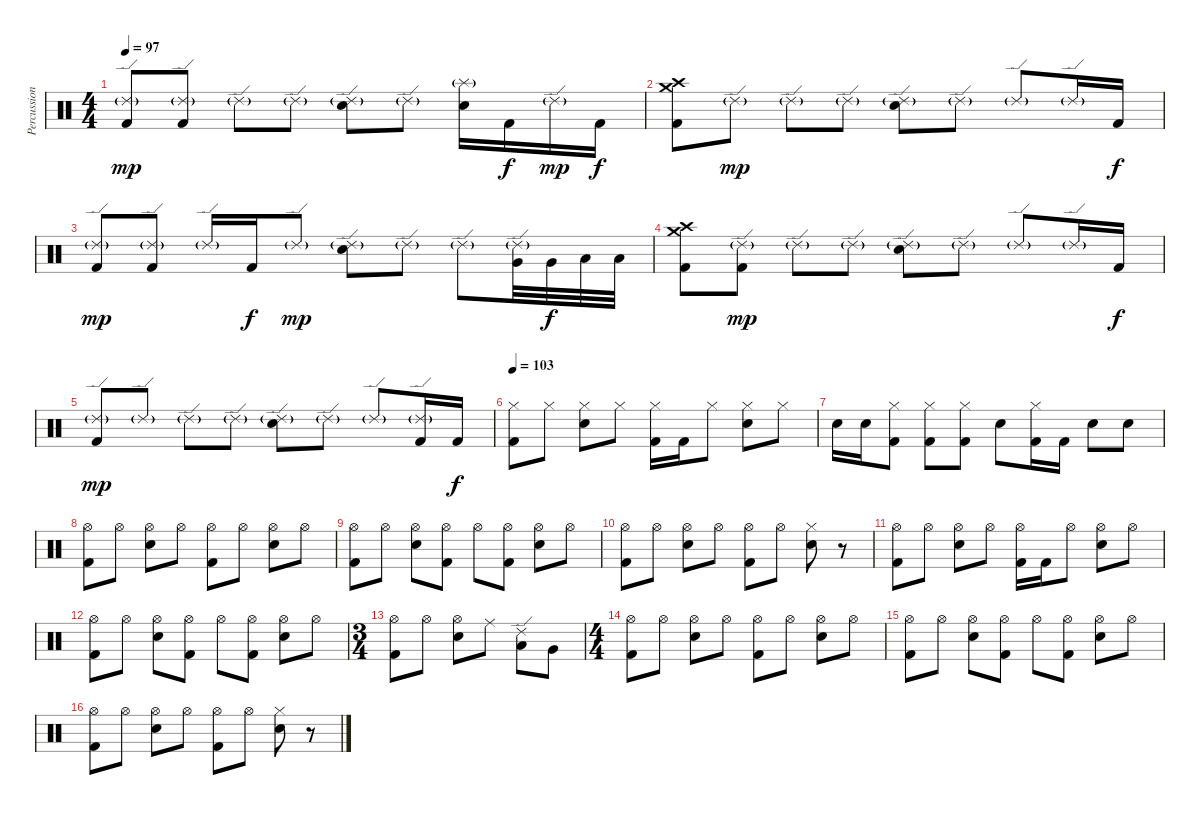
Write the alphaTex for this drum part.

\track ("Percussion" "Percussion") {instrument percussion}
\staff {score}
\articulation defaults
\ts (4 4)
\tempo 97
\clef neutral
\ks c
("Ride (edge) 2"{g} "Kick (hit) 2").8{dy mp} ("Ride (edge) 2"{g} "Kick (hit) 2").8 "Ride (edge) 2"{g}.8 "Ride (edge) 2"{g}.8 ("Ride (edge) 2"{g} "Electric Snare (hit)").8 "Ride (edge) 2"{g}.8 ("Splash (hit)"{g} "Electric Snare (hit)").16 "Kick (hit) 2".16{dy f} "Ride (edge) 2"{g}.16{dy mp} "Kick (hit) 2".16{dy f} |
("Crash medium (hit)" "Crash high (hit)" "Kick (hit) 2").8 "Ride (edge) 2"{g}.8{dy mp} "Ride (edge) 2"{g}.8 "Ride (edge) 2"{g}.8 ("Ride (edge) 2"{g} "Electric Snare (hit)").8 "Ride (edge) 2"{g}.8 "Ride (edge) 2"{g}.8 "Ride (edge) 2"{g}.16 "Kick (hit) 2".16{dy f} |
("Ride (edge) 2"{g} "Kick (hit) 2").8{dy mp} ("Ride (edge) 2"{g} "Kick (hit) 2").8 "Ride (edge) 2"{g}.16 "Kick (hit) 2".16{dy f} "Ride (edge) 2"{g}.8{dy mp} ("Ride (edge) 2"{g} "Electric Snare (hit)").8 "Ride (edge) 2"{g}.8 "Ride (edge) 2"{g}.8 ("Ride (edge) 2"{g} "Very Low Tom (hit)").32 "Very Low Tom (hit)".32{dy f} "Low Floor Tom (hit)".32 "Low Floor Tom (hit)".32 |
("Crash medium (hit)" "Crash high (hit)" "Kick (hit) 2").8 ("Ride (edge) 2"{g} "Kick (hit) 2").8{dy mp} "Ride (edge) 2"{g}.8 "Ride (edge) 2"{g}.8 ("Ride (edge) 2"{g} "Electric Snare (hit)").8 "Ride (edge) 2"{g}.8 "Ride (edge) 2"{g}.8 "Ride (edge) 2"{g}.16 "Kick (hit) 2".16{dy f} |
("Ride (edge) 2"{g} "Kick (hit) 2").8{dy mp} "Ride (edge) 2"{g}.8 "Ride (edge) 2"{g}.8 "Ride (edge) 2"{g}.8 ("Ride (edge) 2"{g} "Electric Snare (hit)").8 "Ride (edge) 2"{g}.8 "Ride (edge) 2"{g}.8 ("Ride (edge) 2"{g} "Kick (hit) 2").16 "Kick (hit) 2".16{dy f} |
\tempo 103
("Hi-Hat (closed)" "Kick (hit) 2").8 "Hi-Hat (closed)".8 ("Hi-Hat (closed)" "Electric Snare (hit)").8 "Hi-Hat (closed)".8 ("Hi-Hat (closed)" "Kick (hit) 2").16 "Kick (hit) 2".16 "Hi-Hat (closed)".8 ("Hi-Hat (closed)" "Electric Snare (hit)").8 "Hi-Hat (closed)".8 |
"Electric Snare (hit)".16 "Electric Snare (hit)".16 ("Hi-Hat (closed)" "Kick (hit) 2").8 ("Hi-Hat (closed)" "Kick (hit) 2").8 ("Hi-Hat (closed)" "Kick (hit) 2").8 "Electric Snare (hit)".8 ("Hi-Hat (closed)" "Kick (hit) 2").16 "Kick (hit) 2".16 "Electric Snare (hit)".8 "Electric Snare (hit)".8 |
("Hi-Hat (open)" "Kick (hit) 2").8 "Hi-Hat (open)".8 ("Hi-Hat (open)" "Electric Snare (hit)").8 "Hi-Hat (open)".8 ("Hi-Hat (open)" "Kick (hit) 2").8 "Hi-Hat (open)".8 ("Hi-Hat (open)" "Electric Snare (hit)").8 "Hi-Hat (open)".8 |
("Hi-Hat (open)" "Kick (hit) 2").8 "Hi-Hat (open)".8 ("Hi-Hat (open)" "Electric Snare (hit)").8 ("Hi-Hat (open)" "Kick (hit) 2").8 "Hi-Hat (open)".8 ("Hi-Hat (open)" "Kick (hit) 2").8 ("Hi-Hat (open)" "Electric Snare (hit)").8 "Hi-Hat (open)".8 |
("Hi-Hat (open)" "Kick (hit) 2").8 "Hi-Hat (open)".8 ("Hi-Hat (open)" "Electric Snare (hit)").8 "Hi-Hat (open)".8 ("Hi-Hat (open)" "Kick (hit) 2").8 "Hi-Hat (open)".8 ("Hi-Hat (closed)" "Electric Snare (hit)").8 r.8 |
("Hi-Hat (open)" "Kick (hit) 2").8 "Hi-Hat (open)".8 ("Hi-Hat (open)" "Electric Snare (hit)").8 "Hi-Hat (open)".8 ("Hi-Hat (open)" "Kick (hit) 2").16 "Kick (hit) 2".16 "Hi-Hat (open)".8 ("Hi-Hat (open)" "Electric Snare (hit)").8 "Hi-Hat (open)".8 |
("Hi-Hat (open)" "Kick (hit) 2").8 "Hi-Hat (open)".8 ("Hi-Hat (open)" "Electric Snare (hit)").8 ("Hi-Hat (open)" "Kick (hit) 2").8 "Hi-Hat (open)".8 ("Hi-Hat (open)" "Kick (hit) 2").8 ("Hi-Hat (open)" "Electric Snare (hit)").8 "Hi-Hat (open)".8 |
\ts (3 4)
("Hi-Hat (open)" "Kick (hit) 2").8 "Hi-Hat (open)".8 ("Hi-Hat (open)" "Electric Snare (hit)").8 "Ride (middle)".8 ("Ride (edge) 2" "Low Tom (hit)").8 "Very Low Tom (hit)".8 |
\ts (4 4)
("Hi-Hat (open)" "Kick (hit) 2").8 "Hi-Hat (open)".8 ("Hi-Hat (open)" "Electric Snare (hit)").8 "Hi-Hat (open)".8 ("Hi-Hat (open)" "Kick (hit) 2").8 "Hi-Hat (open)".8 ("Hi-Hat (open)" "Electric Snare (hit)").8 "Hi-Hat (open)".8 |
("Hi-Hat (open)" "Kick (hit) 2").8 "Hi-Hat (open)".8 ("Hi-Hat (open)" "Electric Snare (hit)").8 ("Hi-Hat (open)" "Kick (hit) 2").8 "Hi-Hat (open)".8 ("Hi-Hat (open)" "Kick (hit) 2").8 ("Hi-Hat (open)" "Electric Snare (hit)").8 "Hi-Hat (open)".8 |
("Hi-Hat (open)" "Kick (hit) 2").8 "Hi-Hat (open)".8 ("Hi-Hat (open)" "Electric Snare (hit)").8 "Hi-Hat (open)".8 ("Hi-Hat (open)" "Kick (hit) 2").8 "Hi-Hat (open)".8 ("Hi-Hat (closed)" "Electric Snare (hit)").8 r.8
